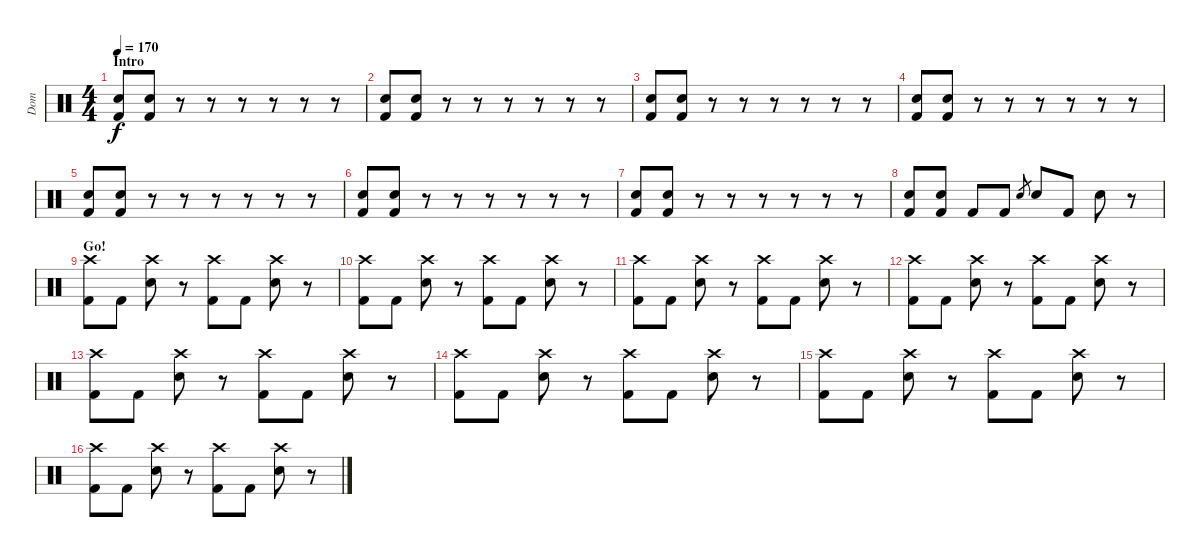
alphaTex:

\track ("Dom" "Dom") {instrument percussion}
\staff {score}
\articulation defaults
\ts (4 4)
\section ("" "Intro")
\tempo 170
\clef neutral
\ks c
("Electric Snare (hit)" "Kick (hit) 2").8{dy f} ("Electric Snare (hit)" "Kick (hit) 2").8 r.8 r.8 r.8 r.8 r.8 r.8 |
("Electric Snare (hit)" "Kick (hit) 2").8 ("Electric Snare (hit)" "Kick (hit) 2").8 r.8 r.8 r.8 r.8 r.8 r.8 |
("Electric Snare (hit)" "Kick (hit) 2").8 ("Electric Snare (hit)" "Kick (hit) 2").8 r.8 r.8 r.8 r.8 r.8 r.8 |
("Electric Snare (hit)" "Kick (hit) 2").8 ("Electric Snare (hit)" "Kick (hit) 2").8 r.8 r.8 r.8 r.8 r.8 r.8 |
("Electric Snare (hit)" "Kick (hit) 2").8 ("Electric Snare (hit)" "Kick (hit) 2").8 r.8 r.8 r.8 r.8 r.8 r.8 |
("Electric Snare (hit)" "Kick (hit) 2").8 ("Electric Snare (hit)" "Kick (hit) 2").8 r.8 r.8 r.8 r.8 r.8 r.8 |
("Electric Snare (hit)" "Kick (hit) 2").8 ("Electric Snare (hit)" "Kick (hit) 2").8 r.8 r.8 r.8 r.8 r.8 r.8 |
("Electric Snare (hit)" "Kick (hit) 2").8 ("Electric Snare (hit)" "Kick (hit) 2").8 "Kick (hit) 2".8 "Kick (hit) 2".8 "Electric Snare (hit)".8{gr} "Electric Snare (hit)".8 "Kick (hit) 2".8 "Electric Snare (hit)".8 r.8 |
\section ("" "Go!")
("Crash high (hit)" "Kick (hit) 2").8 "Kick (hit) 2".8 ("Crash high (hit)" "Electric Snare (hit)").8 r.8 ("Crash high (hit)" "Kick (hit) 2").8 "Kick (hit) 2".8 ("Crash high (hit)" "Electric Snare (hit)").8 r.8 |
("Crash high (hit)" "Kick (hit) 2").8 "Kick (hit) 2".8 ("Crash high (hit)" "Electric Snare (hit)").8 r.8 ("Crash high (hit)" "Kick (hit) 2").8 "Kick (hit) 2".8 ("Crash high (hit)" "Electric Snare (hit)").8 r.8 |
("Crash high (hit)" "Kick (hit) 2").8 "Kick (hit) 2".8 ("Crash high (hit)" "Electric Snare (hit)").8 r.8 ("Crash high (hit)" "Kick (hit) 2").8 "Kick (hit) 2".8 ("Crash high (hit)" "Electric Snare (hit)").8 r.8 |
("Crash high (hit)" "Kick (hit) 2").8 "Kick (hit) 2".8 ("Crash high (hit)" "Electric Snare (hit)").8 r.8 ("Crash high (hit)" "Kick (hit) 2").8 "Kick (hit) 2".8 ("Crash high (hit)" "Electric Snare (hit)").8 r.8 |
("Crash high (hit)" "Kick (hit) 2").8 "Kick (hit) 2".8 ("Crash high (hit)" "Electric Snare (hit)").8 r.8 ("Crash high (hit)" "Kick (hit) 2").8 "Kick (hit) 2".8 ("Crash high (hit)" "Electric Snare (hit)").8 r.8 |
("Crash high (hit)" "Kick (hit) 2").8 "Kick (hit) 2".8 ("Crash high (hit)" "Electric Snare (hit)").8 r.8 ("Crash high (hit)" "Kick (hit) 2").8 "Kick (hit) 2".8 ("Crash high (hit)" "Electric Snare (hit)").8 r.8 |
("Crash high (hit)" "Kick (hit) 2").8 "Kick (hit) 2".8 ("Crash high (hit)" "Electric Snare (hit)").8 r.8 ("Crash high (hit)" "Kick (hit) 2").8 "Kick (hit) 2".8 ("Crash high (hit)" "Electric Snare (hit)").8 r.8 |
("Crash high (hit)" "Kick (hit) 2").8 "Kick (hit) 2".8 ("Crash high (hit)" "Electric Snare (hit)").8 r.8 ("Crash high (hit)" "Kick (hit) 2").8 "Kick (hit) 2".8 ("Crash high (hit)" "Electric Snare (hit)").8 r.8
